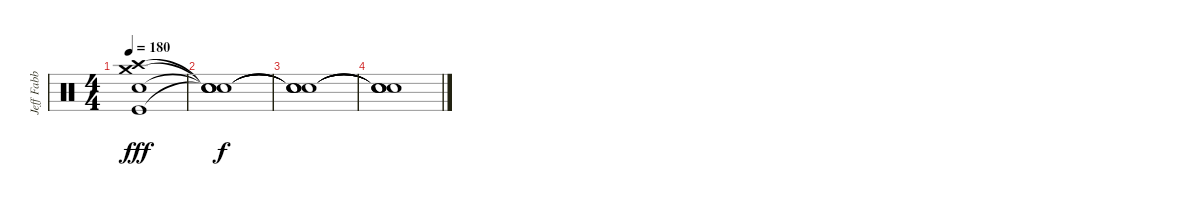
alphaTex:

\track ("Jeff Fabb (Drums)" "Jeff Fabb ") {instrument percussion}
\staff {score}
\articulation defaults
\ts (4 4)
\tempo 180
\clef neutral
\ks c
("Crash high (hit)" "Crash medium (hit)" "Electric Snare (hit)" "Kick (hit)").1{dy fff} |
("Snare (hit)"{t} "Snare (hit)"{t} "Snare (hit)"{t} "Snare (hit)"{t}).1{dy f} |
("Snare (hit)"{t} "Snare (hit)"{t} "Snare (hit)"{t} "Snare (hit)"{t}).1 |
("Snare (hit)"{t} "Snare (hit)"{t} "Snare (hit)"{t} "Snare (hit)"{t}).1
